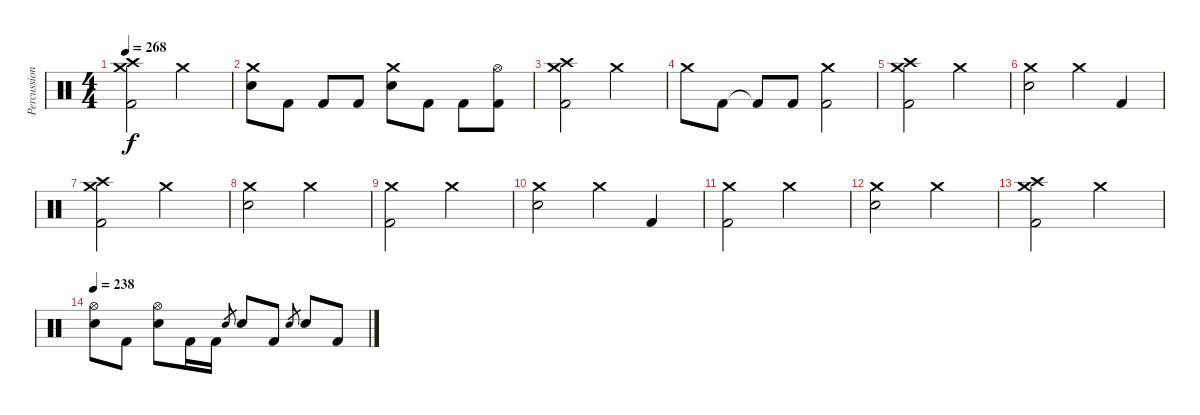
\track ("Percussion" "Percussion") {instrument percussion}
\staff {score}
\articulation defaults
\ts (4 4)
\tempo 268
\clef neutral
\ks c
("Crash medium (hit)" "Crash high (hit)" "Kick (hit) 2").2{dy f} "Crash medium (hit)".2 |
("Crash medium (hit)" "Electric Snare (hit)").8 "Kick (hit) 2".8 "Kick (hit) 2".8 "Kick (hit) 2".8 ("Crash medium (hit)" "Electric Snare (hit)").8 "Kick (hit) 2".8 "Kick (hit) 2".8 ("Hi-Hat (open)" "Kick (hit) 2").8 |
("Crash medium (hit)" "Crash high (hit)" "Kick (hit) 2").2 "Crash medium (hit)".2 |
"Crash medium (hit)".8 "Kick (hit) 2".8 "Kick (hit) 2"{t}.8 "Kick (hit) 2".8 ("Crash medium (hit)" "Kick (hit) 2").2 |
("Crash medium (hit)" "Crash high (hit)" "Kick (hit) 2").2 "Crash medium (hit)".2 |
("Crash medium (hit)" "Electric Snare (hit)").2 "Crash medium (hit)".4 "Kick (hit) 2".4 |
("Crash medium (hit)" "Crash high (hit)" "Kick (hit) 2").2 "Crash medium (hit)".2 |
("Crash medium (hit)" "Electric Snare (hit)").2 "Crash medium (hit)".2 |
("Crash medium (hit)" "Kick (hit) 2").2 "Crash medium (hit)".2 |
("Crash medium (hit)" "Electric Snare (hit)").2 "Crash medium (hit)".4 "Kick (hit) 2".4 |
("Crash medium (hit)" "Kick (hit) 2").2 "Crash medium (hit)".2 |
("Crash medium (hit)" "Electric Snare (hit)").2 "Crash medium (hit)".2 |
("Crash medium (hit)" "Crash high (hit)" "Kick (hit) 2").2 "Crash medium (hit)".2 |
\tempo 238
("Hi-Hat (open)" "Electric Snare (hit)").8 "Kick (hit) 2".8 ("Hi-Hat (open)" "Electric Snare (hit)").8 "Kick (hit) 2".16 "Kick (hit) 2".16 "Electric Snare (hit)".8{gr} "Electric Snare (hit)".8 "Kick (hit) 2".8 "Electric Snare (hit)".8{gr} "Electric Snare (hit)".8 "Kick (hit) 2".8
